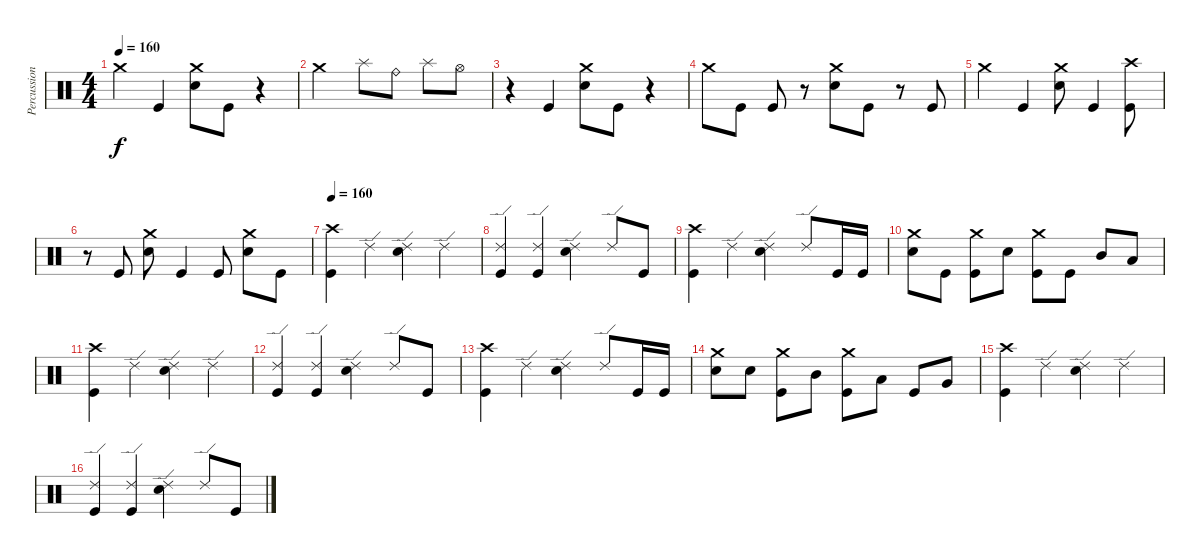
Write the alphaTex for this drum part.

\track ("Percussion" "Percussion") {instrument percussion}
\staff {score}
\articulation defaults
\ts (4 4)
\tempo 160
\clef neutral
\ks c "Crash medium (hit)".4{dy f} "Kick (hit)".4
("Crash medium (hit)" "Electric Snare (hit)").8 "Kick (hit)".8 r.4 |
"Crash medium (hit)".2 "Splash (hit)".8 "Ride (bell)".8 "Splash (hit)".8 "Hi-Hat (open)".8 |
r.4 "Kick (hit)".4 ("Crash medium (hit)" "Electric Snare (hit)").8 "Kick (hit)".8 r.4 |
"Crash medium (hit)".8 "Kick (hit)".8 "Kick (hit)".8 r.8 ("Crash medium (hit)" "Electric Snare (hit)").8 "Kick (hit)".8 r.8 "Kick (hit)".8 |
"Crash medium (hit)".4 "Kick (hit)".4 ("Crash medium (hit)" "Electric Snare (hit)").8 "Kick (hit)".4 ("Crash high (hit)" "Kick (hit)").8 |
r.8 "Kick (hit)".8 ("Crash medium (hit)" "Electric Snare (hit)").8 "Kick (hit)".4 "Kick (hit)".8 ("Crash medium (hit)" "Electric Snare (hit)").8 "Kick (hit)".8 |
\tempo 160
("Crash high (hit)" "Kick (hit)").4 "Ride (edge) 2".4 ("Ride (edge) 2" "Electric Snare (hit)").4 "Ride (edge) 2".4 |
("Ride (edge) 2" "Kick (hit)").4 ("Ride (edge) 2" "Kick (hit)").4 ("Ride (edge) 2" "Electric Snare (hit)").4 "Ride (edge) 2".8 "Kick (hit)".8 |
("Crash high (hit)" "Kick (hit)").4 "Ride (edge) 2".4 ("Ride (edge) 2" "Electric Snare (hit)").4 "Ride (edge) 2".8 "Kick (hit)".16 "Kick (hit)".16 |
("Crash medium (hit)" "Electric Snare (hit)").8 "Kick (hit)".8 ("Crash medium (hit)" "Kick (hit)").8 "Electric Snare (hit)".8 ("Crash medium (hit)" "Kick (hit)").8 "Kick (hit)".8 "Mid Tom (hit)".8 "Low Tom (hit)".8 |
("Crash high (hit)" "Kick (hit)").4 "Ride (edge) 2".4 ("Ride (edge) 2" "Electric Snare (hit)").4 "Ride (edge) 2".4 |
("Ride (edge) 2" "Kick (hit)").4 ("Ride (edge) 2" "Kick (hit)").4 ("Ride (edge) 2" "Electric Snare (hit)").4 "Ride (edge) 2".8 "Kick (hit)".8 |
("Crash high (hit)" "Kick (hit)").4 "Ride (edge) 2".4 ("Ride (edge) 2" "Electric Snare (hit)").4 "Ride (edge) 2".8 "Kick (hit)".16 "Kick (hit)".16 |
("Crash medium (hit)" "Electric Snare (hit)").8 "Electric Snare (hit)".8 ("Crash medium (hit)" "Kick (hit)").8 "Mid Tom (hit)".8 ("Crash medium (hit)" "Kick (hit)").8 "Low Tom (hit)".8 "Kick (hit)".8 "Very Low Tom (hit)".8 |
("Crash high (hit)" "Kick (hit)").4 "Ride (edge) 2".4 ("Ride (edge) 2" "Electric Snare (hit)").4 "Ride (edge) 2".4 |
("Ride (edge) 2" "Kick (hit)").4 ("Ride (edge) 2" "Kick (hit)").4 ("Ride (edge) 2" "Electric Snare (hit)").4 "Ride (edge) 2".8 "Kick (hit)".8
